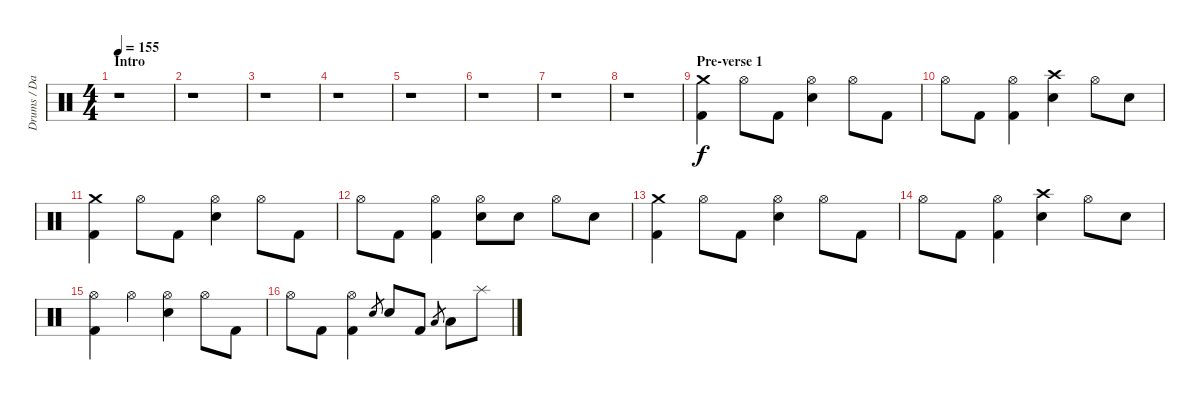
\track ("Drums / David" "Drums / Da") {instrument percussion}
\staff {score}
\articulation defaults
\ts (4 4)
\section ("" "Intro")
\tempo 155
\clef neutral
\ks c
r.1{dy f} |
r.1 |
r.1 |
r.1 |
r.1 |
r.1 |
r.1 |
r.1 |
\section ("" "Pre-verse 1")
("Crash medium (hit)" "Kick (hit) 2").4 "Hi-Hat (open)".8 "Kick (hit) 2".8 ("Hi-Hat (open)" "Electric Snare (hit)").4 "Hi-Hat (open)".8 "Kick (hit) 2".8 |
"Hi-Hat (open)".8 "Kick (hit) 2".8 ("Hi-Hat (open)" "Kick (hit) 2").4 ("Crash high (hit)" "Electric Snare (hit)").4 "Hi-Hat (open)".8 "Electric Snare (hit)".8 |
("Crash medium (hit)" "Kick (hit) 2").4 "Hi-Hat (open)".8 "Kick (hit) 2".8 ("Hi-Hat (open)" "Electric Snare (hit)").4 "Hi-Hat (open)".8 "Kick (hit) 2".8 |
"Hi-Hat (open)".8 "Kick (hit) 2".8 ("Hi-Hat (open)" "Kick (hit) 2").4 ("Hi-Hat (open)" "Electric Snare (hit)").8 "Electric Snare (hit)".8 "Hi-Hat (open)".8 "Electric Snare (hit)".8 |
("Crash medium (hit)" "Kick (hit) 2").4 "Hi-Hat (open)".8 "Kick (hit) 2".8 ("Hi-Hat (open)" "Electric Snare (hit)").4 "Hi-Hat (open)".8 "Kick (hit) 2".8 |
"Hi-Hat (open)".8 "Kick (hit) 2".8 ("Hi-Hat (open)" "Kick (hit) 2").4 ("Crash high (hit)" "Electric Snare (hit)").4 "Hi-Hat (open)".8 "Electric Snare (hit)".8 |
("Hi-Hat (open)" "Kick (hit) 2").4 "Hi-Hat (open)".4 ("Hi-Hat (open)" "Electric Snare (hit)").4 "Hi-Hat (open)".8 "Kick (hit) 2".8 |
"Hi-Hat (open)".8 "Kick (hit) 2".8 ("Hi-Hat (open)" "Kick (hit) 2").4 "Electric Snare (hit)".8{gr} "Electric Snare (hit)".8 "Kick (hit) 2".8 "Low Floor Tom (hit)".8{gr} "Low Floor Tom (hit)".8 "Splash (hit)".8
